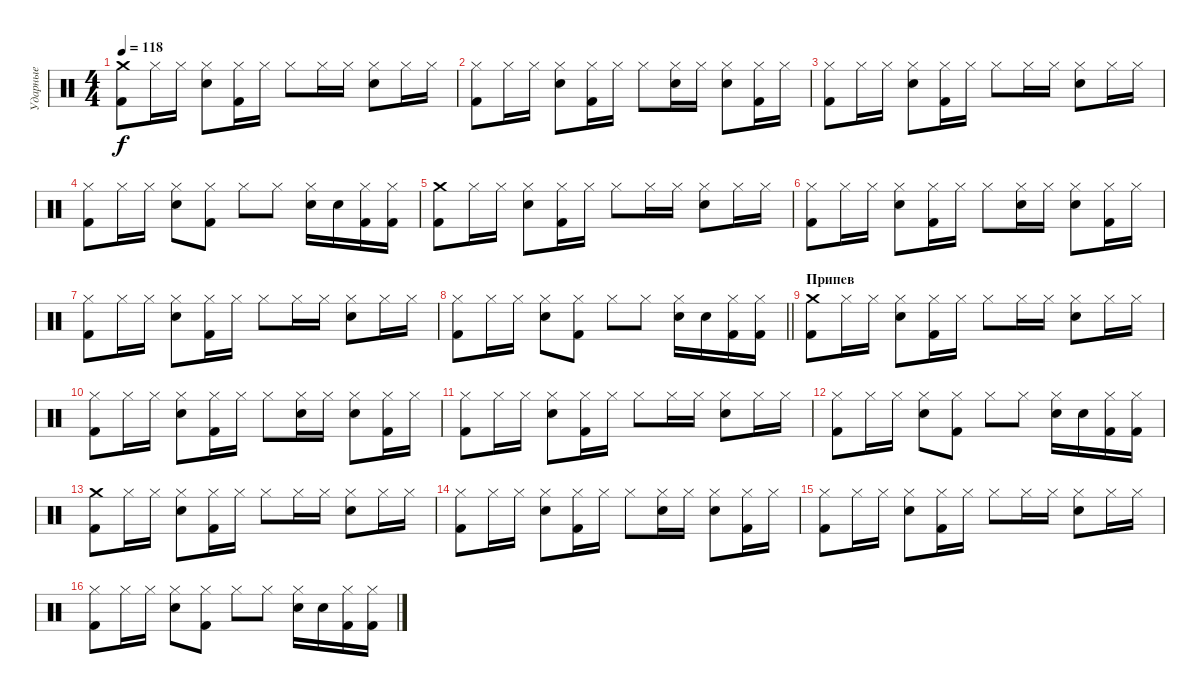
\track ("Ударные" "Ударные") {instrument percussion}
\staff {score}
\articulation defaults
\ts (4 4)
\tempo 118
\clef neutral
\ks c
("Crash medium (hit)" "Kick (hit) 2").8{dy f} "Hi-Hat (closed)".16 "Hi-Hat (closed)".16 ("Hi-Hat (closed)" "Electric Snare (hit)").8 ("Hi-Hat (closed)" "Kick (hit) 2").16 "Hi-Hat (closed)".16 "Hi-Hat (closed)".8 "Hi-Hat (closed)".16 "Hi-Hat (closed)".16 ("Hi-Hat (closed)" "Electric Snare (hit)").8 "Hi-Hat (closed)".16 "Hi-Hat (closed)".16 |
("Hi-Hat (closed)" "Kick (hit) 2").8 "Hi-Hat (closed)".16 "Hi-Hat (closed)".16 ("Hi-Hat (closed)" "Electric Snare (hit)").8 ("Hi-Hat (closed)" "Kick (hit) 2").16 "Hi-Hat (closed)".16 "Hi-Hat (closed)".8 ("Hi-Hat (closed)" "Electric Snare (hit)").16 "Hi-Hat (closed)".16 ("Hi-Hat (closed)" "Electric Snare (hit)").8 ("Hi-Hat (closed)" "Kick (hit) 2").16 "Hi-Hat (closed)".16 |
("Hi-Hat (closed)" "Kick (hit) 2").8 "Hi-Hat (closed)".16 "Hi-Hat (closed)".16 ("Hi-Hat (closed)" "Electric Snare (hit)").8 ("Hi-Hat (closed)" "Kick (hit) 2").16 "Hi-Hat (closed)".16 "Hi-Hat (closed)".8 "Hi-Hat (closed)".16 "Hi-Hat (closed)".16 ("Hi-Hat (closed)" "Electric Snare (hit)").8 "Hi-Hat (closed)".16 "Hi-Hat (closed)".16 |
("Hi-Hat (closed)" "Kick (hit) 2").8 "Hi-Hat (closed)".16 "Hi-Hat (closed)".16 ("Hi-Hat (closed)" "Electric Snare (hit)").8 ("Hi-Hat (closed)" "Kick (hit) 2").8 "Hi-Hat (closed)".8 "Hi-Hat (closed)".8 ("Hi-Hat (closed)" "Electric Snare (hit)").16 "Electric Snare (hit)".16 ("Hi-Hat (closed)" "Kick (hit) 2").16 ("Hi-Hat (closed)" "Kick (hit) 2").16 |
("Crash medium (hit)" "Kick (hit) 2").8 "Hi-Hat (closed)".16 "Hi-Hat (closed)".16 ("Hi-Hat (closed)" "Electric Snare (hit)").8 ("Hi-Hat (closed)" "Kick (hit) 2").16 "Hi-Hat (closed)".16 "Hi-Hat (closed)".8 "Hi-Hat (closed)".16 "Hi-Hat (closed)".16 ("Hi-Hat (closed)" "Electric Snare (hit)").8 "Hi-Hat (closed)".16 "Hi-Hat (closed)".16 |
("Hi-Hat (closed)" "Kick (hit) 2").8 "Hi-Hat (closed)".16 "Hi-Hat (closed)".16 ("Hi-Hat (closed)" "Electric Snare (hit)").8 ("Hi-Hat (closed)" "Kick (hit) 2").16 "Hi-Hat (closed)".16 "Hi-Hat (closed)".8 ("Hi-Hat (closed)" "Electric Snare (hit)").16 "Hi-Hat (closed)".16 ("Hi-Hat (closed)" "Electric Snare (hit)").8 ("Hi-Hat (closed)" "Kick (hit) 2").16 "Hi-Hat (closed)".16 |
("Hi-Hat (closed)" "Kick (hit) 2").8 "Hi-Hat (closed)".16 "Hi-Hat (closed)".16 ("Hi-Hat (closed)" "Electric Snare (hit)").8 ("Hi-Hat (closed)" "Kick (hit) 2").16 "Hi-Hat (closed)".16 "Hi-Hat (closed)".8 "Hi-Hat (closed)".16 "Hi-Hat (closed)".16 ("Hi-Hat (closed)" "Electric Snare (hit)").8 "Hi-Hat (closed)".16 "Hi-Hat (closed)".16 |
\barLineRight lightlight
("Hi-Hat (closed)" "Kick (hit) 2").8 "Hi-Hat (closed)".16 "Hi-Hat (closed)".16 ("Hi-Hat (closed)" "Electric Snare (hit)").8 ("Hi-Hat (closed)" "Kick (hit) 2").8 "Hi-Hat (closed)".8 "Hi-Hat (closed)".8 ("Hi-Hat (closed)" "Electric Snare (hit)").16 "Electric Snare (hit)".16 ("Hi-Hat (closed)" "Kick (hit) 2").16 ("Hi-Hat (closed)" "Kick (hit) 2").16 |
\section ("" "Припев")
("Crash medium (hit)" "Kick (hit) 2").8 "Hi-Hat (closed)".16 "Hi-Hat (closed)".16 ("Hi-Hat (closed)" "Electric Snare (hit)").8 ("Hi-Hat (closed)" "Kick (hit) 2").16 "Hi-Hat (closed)".16 "Hi-Hat (closed)".8 "Hi-Hat (closed)".16 "Hi-Hat (closed)".16 ("Hi-Hat (closed)" "Electric Snare (hit)").8 "Hi-Hat (closed)".16 "Hi-Hat (closed)".16 |
("Hi-Hat (closed)" "Kick (hit) 2").8 "Hi-Hat (closed)".16 "Hi-Hat (closed)".16 ("Hi-Hat (closed)" "Electric Snare (hit)").8 ("Hi-Hat (closed)" "Kick (hit) 2").16 "Hi-Hat (closed)".16 "Hi-Hat (closed)".8 ("Hi-Hat (closed)" "Electric Snare (hit)").16 "Hi-Hat (closed)".16 ("Hi-Hat (closed)" "Electric Snare (hit)").8 ("Hi-Hat (closed)" "Kick (hit) 2").16 "Hi-Hat (closed)".16 |
("Hi-Hat (closed)" "Kick (hit) 2").8 "Hi-Hat (closed)".16 "Hi-Hat (closed)".16 ("Hi-Hat (closed)" "Electric Snare (hit)").8 ("Hi-Hat (closed)" "Kick (hit) 2").16 "Hi-Hat (closed)".16 "Hi-Hat (closed)".8 "Hi-Hat (closed)".16 "Hi-Hat (closed)".16 ("Hi-Hat (closed)" "Electric Snare (hit)").8 "Hi-Hat (closed)".16 "Hi-Hat (closed)".16 |
("Hi-Hat (closed)" "Kick (hit) 2").8 "Hi-Hat (closed)".16 "Hi-Hat (closed)".16 ("Hi-Hat (closed)" "Electric Snare (hit)").8 ("Hi-Hat (closed)" "Kick (hit) 2").8 "Hi-Hat (closed)".8 "Hi-Hat (closed)".8 ("Hi-Hat (closed)" "Electric Snare (hit)").16 "Electric Snare (hit)".16 ("Hi-Hat (closed)" "Kick (hit) 2").16 ("Hi-Hat (closed)" "Kick (hit) 2").16 |
("Crash medium (hit)" "Kick (hit) 2").8 "Hi-Hat (closed)".16 "Hi-Hat (closed)".16 ("Hi-Hat (closed)" "Electric Snare (hit)").8 ("Hi-Hat (closed)" "Kick (hit) 2").16 "Hi-Hat (closed)".16 "Hi-Hat (closed)".8 "Hi-Hat (closed)".16 "Hi-Hat (closed)".16 ("Hi-Hat (closed)" "Electric Snare (hit)").8 "Hi-Hat (closed)".16 "Hi-Hat (closed)".16 |
("Hi-Hat (closed)" "Kick (hit) 2").8 "Hi-Hat (closed)".16 "Hi-Hat (closed)".16 ("Hi-Hat (closed)" "Electric Snare (hit)").8 ("Hi-Hat (closed)" "Kick (hit) 2").16 "Hi-Hat (closed)".16 "Hi-Hat (closed)".8 ("Hi-Hat (closed)" "Electric Snare (hit)").16 "Hi-Hat (closed)".16 ("Hi-Hat (closed)" "Electric Snare (hit)").8 ("Hi-Hat (closed)" "Kick (hit) 2").16 "Hi-Hat (closed)".16 |
("Hi-Hat (closed)" "Kick (hit) 2").8 "Hi-Hat (closed)".16 "Hi-Hat (closed)".16 ("Hi-Hat (closed)" "Electric Snare (hit)").8 ("Hi-Hat (closed)" "Kick (hit) 2").16 "Hi-Hat (closed)".16 "Hi-Hat (closed)".8 "Hi-Hat (closed)".16 "Hi-Hat (closed)".16 ("Hi-Hat (closed)" "Electric Snare (hit)").8 "Hi-Hat (closed)".16 "Hi-Hat (closed)".16 |
("Hi-Hat (closed)" "Kick (hit) 2").8 "Hi-Hat (closed)".16 "Hi-Hat (closed)".16 ("Hi-Hat (closed)" "Electric Snare (hit)").8 ("Hi-Hat (closed)" "Kick (hit) 2").8 "Hi-Hat (closed)".8 "Hi-Hat (closed)".8 ("Hi-Hat (closed)" "Electric Snare (hit)").16 "Electric Snare (hit)".16 ("Hi-Hat (closed)" "Kick (hit) 2").16 ("Hi-Hat (closed)" "Kick (hit) 2").16
